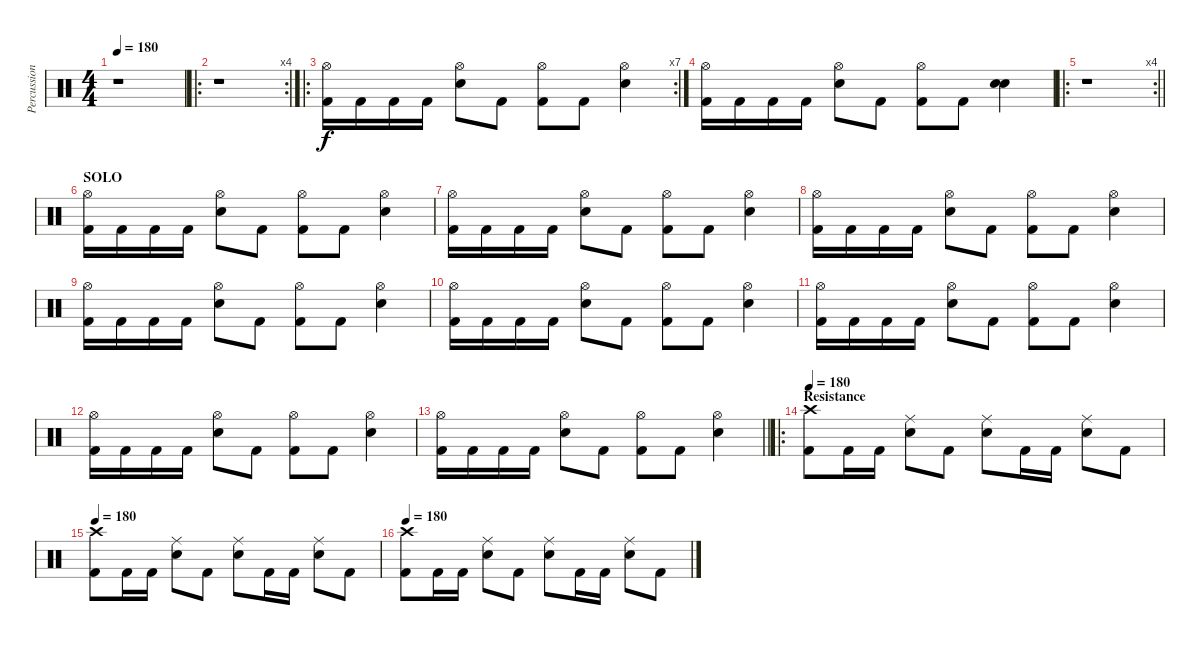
\track ("Percussions" "Percussion") {instrument percussion}
\staff {score}
\articulation defaults
\ts (4 4)
\tempo 180
\clef neutral
\ks c
r.1{dy f} |
\ro
\rc 4
r.1 |
\ro
\rc 7
("Hi-Hat (open)" "Kick (hit) 2").16 "Kick (hit) 2".16 "Kick (hit) 2".16 "Kick (hit) 2".16 ("Hi-Hat (open)" "Electric Snare (hit)").8 "Kick (hit) 2".8 ("Hi-Hat (open)" "Kick (hit) 2").8 "Kick (hit) 2".8 ("Hi-Hat (open)" "Electric Snare (hit)").4 |
("Hi-Hat (open)" "Kick (hit) 2").16 "Kick (hit) 2".16 "Kick (hit) 2".16 "Kick (hit) 2".16 ("Hi-Hat (open)" "Electric Snare (hit)").8 "Kick (hit) 2".8 ("Hi-Hat (open)" "Kick (hit) 2").8 "Kick (hit) 2".8 ("Electric Snare (hit)" "Electric Snare (hit)").4{bd 480} |
\ro
\rc 4
\barLineRight lightlight
r.1 |
\section ("" "SOLO")
("Hi-Hat (open)" "Kick (hit) 2").16 "Kick (hit) 2".16 "Kick (hit) 2".16 "Kick (hit) 2".16 ("Hi-Hat (open)" "Electric Snare (hit)").8 "Kick (hit) 2".8 ("Hi-Hat (open)" "Kick (hit) 2").8 "Kick (hit) 2".8 ("Hi-Hat (open)" "Electric Snare (hit)").4 |
("Hi-Hat (open)" "Kick (hit) 2").16 "Kick (hit) 2".16 "Kick (hit) 2".16 "Kick (hit) 2".16 ("Hi-Hat (open)" "Electric Snare (hit)").8 "Kick (hit) 2".8 ("Hi-Hat (open)" "Kick (hit) 2").8 "Kick (hit) 2".8 ("Hi-Hat (open)" "Electric Snare (hit)").4 |
("Hi-Hat (open)" "Kick (hit) 2").16 "Kick (hit) 2".16 "Kick (hit) 2".16 "Kick (hit) 2".16 ("Hi-Hat (open)" "Electric Snare (hit)").8 "Kick (hit) 2".8 ("Hi-Hat (open)" "Kick (hit) 2").8 "Kick (hit) 2".8 ("Hi-Hat (open)" "Electric Snare (hit)").4 |
("Hi-Hat (open)" "Kick (hit) 2").16 "Kick (hit) 2".16 "Kick (hit) 2".16 "Kick (hit) 2".16 ("Hi-Hat (open)" "Electric Snare (hit)").8 "Kick (hit) 2".8 ("Hi-Hat (open)" "Kick (hit) 2").8 "Kick (hit) 2".8 ("Hi-Hat (open)" "Electric Snare (hit)").4 |
("Hi-Hat (open)" "Kick (hit) 2").16 "Kick (hit) 2".16 "Kick (hit) 2".16 "Kick (hit) 2".16 ("Hi-Hat (open)" "Electric Snare (hit)").8 "Kick (hit) 2".8 ("Hi-Hat (open)" "Kick (hit) 2").8 "Kick (hit) 2".8 ("Hi-Hat (open)" "Electric Snare (hit)").4 |
("Hi-Hat (open)" "Kick (hit) 2").16 "Kick (hit) 2".16 "Kick (hit) 2".16 "Kick (hit) 2".16 ("Hi-Hat (open)" "Electric Snare (hit)").8 "Kick (hit) 2".8 ("Hi-Hat (open)" "Kick (hit) 2").8 "Kick (hit) 2".8 ("Hi-Hat (open)" "Electric Snare (hit)").4 |
("Hi-Hat (open)" "Kick (hit) 2").16 "Kick (hit) 2".16 "Kick (hit) 2".16 "Kick (hit) 2".16 ("Hi-Hat (open)" "Electric Snare (hit)").8 "Kick (hit) 2".8 ("Hi-Hat (open)" "Kick (hit) 2").8 "Kick (hit) 2".8 ("Hi-Hat (open)" "Electric Snare (hit)").4 |
\barLineRight lightlight
("Hi-Hat (open)" "Kick (hit) 2").16 "Kick (hit) 2".16 "Kick (hit) 2".16 "Kick (hit) 2".16 ("Hi-Hat (open)" "Electric Snare (hit)").8 "Kick (hit) 2".8 ("Hi-Hat (open)" "Kick (hit) 2").8 "Kick (hit) 2".8 ("Hi-Hat (open)" "Electric Snare (hit)").4 |
\ro
\section ("" "Resistance")
\tempo 180
("Crash high (hit)" "Kick (hit) 2").8 "Kick (hit) 2".16 "Kick (hit) 2".16 ("Ride (middle)" "Electric Snare (hit)").8 "Kick (hit) 2".8 ("Ride (middle)" "Electric Snare (hit)").8 "Kick (hit) 2".16 "Kick (hit) 2".16 ("Ride (middle)" "Electric Snare (hit)").8 "Kick (hit) 2".8 |
\tempo 180
("Crash high (hit)" "Kick (hit) 2").8 "Kick (hit) 2".16 "Kick (hit) 2".16 ("Ride (middle)" "Electric Snare (hit)").8 "Kick (hit) 2".8 ("Ride (middle)" "Electric Snare (hit)").8 "Kick (hit) 2".16 "Kick (hit) 2".16 ("Ride (middle)" "Electric Snare (hit)").8 "Kick (hit) 2".8 |
\tempo 180
("Crash high (hit)" "Kick (hit) 2").8 "Kick (hit) 2".16 "Kick (hit) 2".16 ("Ride (middle)" "Electric Snare (hit)").8 "Kick (hit) 2".8 ("Ride (middle)" "Electric Snare (hit)").8 "Kick (hit) 2".16 "Kick (hit) 2".16 ("Ride (middle)" "Electric Snare (hit)").8 "Kick (hit) 2".8
